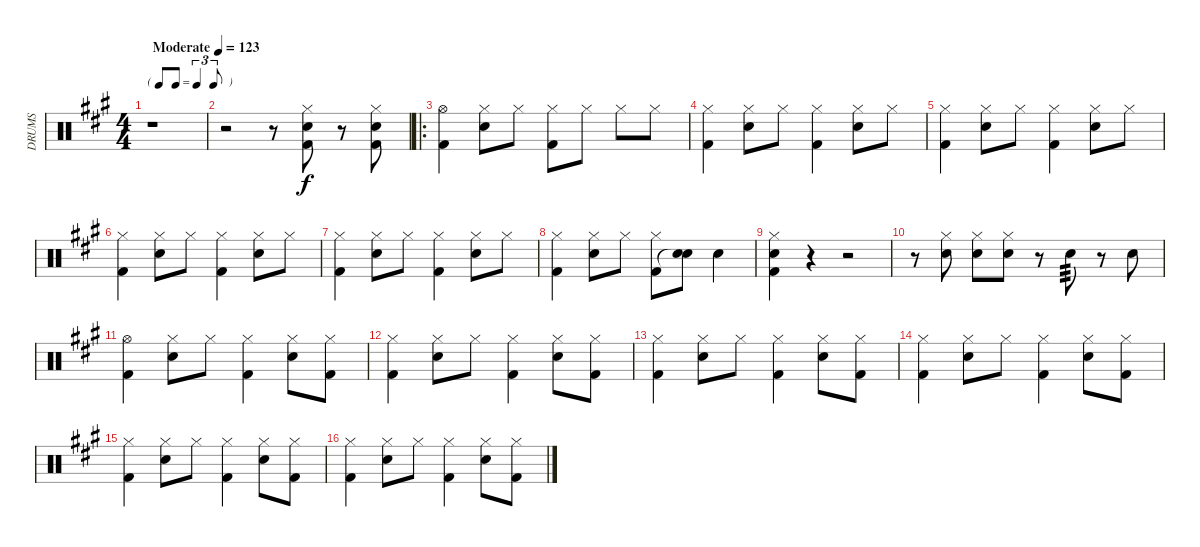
\track ("DRUMS" "DRUMS") {solo instrument percussion}
\staff {score}
\articulation defaults
\ts (4 4)
\tf triplet8th
\tempo (123 "Moderate")
\clef neutral
\ks a
r.1{dy f} |
r.2 r.8 ("Hi-Hat (closed)" "Snare (hit) 2" "Kick (hit) 2").8 r.8 ("Hi-Hat (closed)" "Snare (hit) 2" "Kick (hit) 2").8 |
\ro
("Hi-Hat (open)" "Kick (hit) 2").4 ("Hi-Hat (closed)" "Snare (hit) 2").8 "Hi-Hat (closed)".8 ("Hi-Hat (closed)" "Kick (hit) 2").8 "Hi-Hat (closed)".8 "Hi-Hat (closed)".8 "Hi-Hat (closed)".8 |
("Hi-Hat (closed)" "Kick (hit) 2").4 ("Hi-Hat (closed)" "Snare (hit) 2").8 "Hi-Hat (closed)".8 ("Hi-Hat (closed)" "Kick (hit) 2").4 ("Hi-Hat (closed)" "Snare (hit) 2").8 "Hi-Hat (closed)".8 |
("Hi-Hat (closed)" "Kick (hit) 2").4 ("Hi-Hat (closed)" "Snare (hit) 2").8 "Hi-Hat (closed)".8 ("Hi-Hat (closed)" "Kick (hit) 2").4 ("Hi-Hat (closed)" "Snare (hit) 2").8 "Hi-Hat (closed)".8 |
("Hi-Hat (closed)" "Kick (hit) 2").4 ("Hi-Hat (closed)" "Snare (hit) 2").8 "Hi-Hat (closed)".8 ("Hi-Hat (closed)" "Kick (hit) 2").4 ("Hi-Hat (closed)" "Snare (hit) 2").8 "Hi-Hat (closed)".8 |
("Hi-Hat (closed)" "Kick (hit) 2").4 ("Hi-Hat (closed)" "Snare (hit) 2").8 "Hi-Hat (closed)".8 ("Hi-Hat (closed)" "Kick (hit) 2").4 ("Hi-Hat (closed)" "Snare (hit) 2").8 "Hi-Hat (closed)".8 |
("Hi-Hat (closed)" "Kick (hit) 2").4 ("Hi-Hat (closed)" "Snare (hit) 2").8 "Hi-Hat (closed)".8 ("Hi-Hat (closed)" "Kick (hit) 2").8 ("Snare (hit) 2" "Snare (hit)"{t}).8 "Snare (hit) 2".4 |
("Hi-Hat (closed)" "Snare (hit) 2" "Kick (hit) 2").4 r.4 r.2 |
r.8 ("Hi-Hat (closed)" "Snare (hit) 2").8 ("Hi-Hat (closed)" "Snare (hit) 2").8 ("Hi-Hat (closed)" "Snare (hit) 2").8 r.8 "Snare (hit) 2".8{tp 3} r.8 "Snare (hit) 2".8 |
("Hi-Hat (open)" "Kick (hit) 2").4 ("Hi-Hat (closed)" "Snare (hit) 2").8 "Hi-Hat (closed)".8 ("Hi-Hat (closed)" "Kick (hit) 2").4 ("Hi-Hat (closed)" "Snare (hit) 2").8 ("Hi-Hat (closed)" "Kick (hit) 2").8 |
("Hi-Hat (closed)" "Kick (hit) 2").4 ("Hi-Hat (closed)" "Snare (hit) 2").8 "Hi-Hat (closed)".8 ("Hi-Hat (closed)" "Kick (hit) 2").4 ("Hi-Hat (closed)" "Snare (hit) 2").8 ("Hi-Hat (closed)" "Kick (hit) 2").8 |
("Hi-Hat (closed)" "Kick (hit) 2").4 ("Hi-Hat (closed)" "Snare (hit) 2").8 "Hi-Hat (closed)".8 ("Hi-Hat (closed)" "Kick (hit) 2").4 ("Hi-Hat (closed)" "Snare (hit) 2").8 ("Hi-Hat (closed)" "Kick (hit) 2").8 |
("Hi-Hat (closed)" "Kick (hit) 2").4 ("Hi-Hat (closed)" "Snare (hit) 2").8 "Hi-Hat (closed)".8 ("Hi-Hat (closed)" "Kick (hit) 2").4 ("Hi-Hat (closed)" "Snare (hit) 2").8 ("Hi-Hat (closed)" "Kick (hit) 2").8 |
("Hi-Hat (closed)" "Kick (hit) 2").4 ("Hi-Hat (closed)" "Snare (hit) 2").8 "Hi-Hat (closed)".8 ("Hi-Hat (closed)" "Kick (hit) 2").4 ("Hi-Hat (closed)" "Snare (hit) 2").8 ("Hi-Hat (closed)" "Kick (hit) 2").8 |
("Hi-Hat (closed)" "Kick (hit) 2").4 ("Hi-Hat (closed)" "Snare (hit) 2").8 "Hi-Hat (closed)".8 ("Hi-Hat (closed)" "Kick (hit) 2").4 ("Hi-Hat (closed)" "Snare (hit) 2").8 ("Hi-Hat (closed)" "Kick (hit) 2").8
